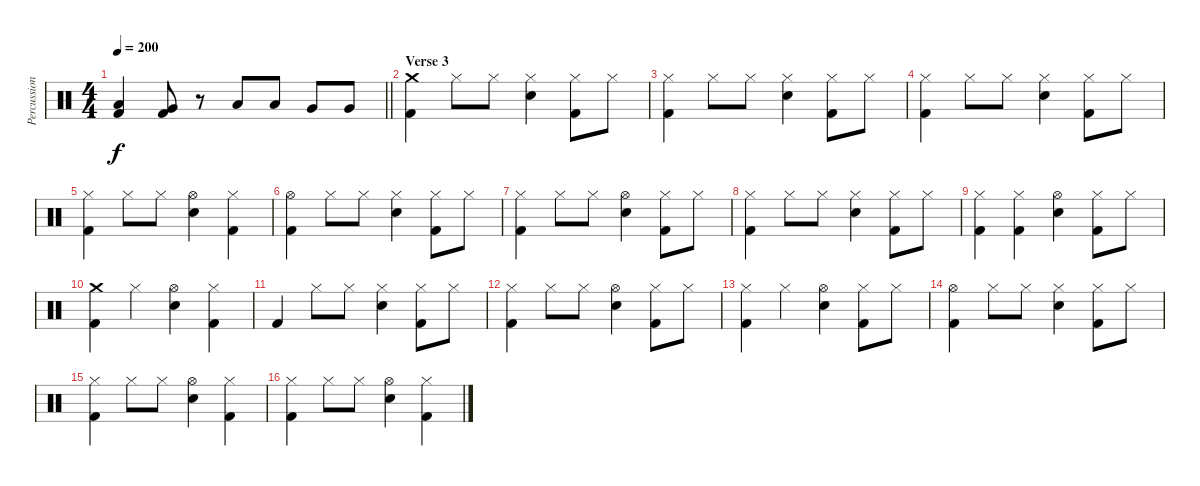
\track ("Percussion" "Percussion") {instrument percussion}
\staff {score}
\articulation defaults
\ts (4 4)
\tempo 200
\clef neutral
\barLineRight lightlight
\ks c
("Low Tom (hit)" "Kick (hit) 2").4{dy f} ("Very Low Tom (hit)" "Kick (hit) 2").8 r.8 "Low Tom (hit)".8 "Low Tom (hit)".8 "Very Low Tom (hit)".8 "Very Low Tom (hit)".8 |
\section ("" "Verse 3")
("Crash medium (hit)" "Kick (hit) 2").4 "Hi-Hat (closed)".8 "Hi-Hat (closed)".8 ("Hi-Hat (closed)" "Snare (hit) 2").4 ("Hi-Hat (closed)" "Kick (hit) 2").8 "Hi-Hat (closed)".8 |
("Hi-Hat (closed)" "Kick (hit) 2").4 "Hi-Hat (closed)".8 "Hi-Hat (closed)".8 ("Hi-Hat (closed)" "Snare (hit) 2").4 ("Hi-Hat (closed)" "Kick (hit) 2").8 "Hi-Hat (closed)".8 |
("Hi-Hat (closed)" "Kick (hit) 2").4 "Hi-Hat (closed)".8 "Hi-Hat (closed)".8 ("Hi-Hat (closed)" "Snare (hit) 2").4 ("Hi-Hat (closed)" "Kick (hit) 2").8 "Hi-Hat (closed)".8 |
("Hi-Hat (closed)" "Kick (hit) 2").4 "Hi-Hat (closed)".8 "Hi-Hat (closed)".8 ("Hi-Hat (open)" "Snare (hit) 2").4 ("Hi-Hat (closed)" "Kick (hit) 2").4 |
("Hi-Hat (open)" "Kick (hit) 2").4 "Hi-Hat (closed)".8 "Hi-Hat (closed)".8 ("Hi-Hat (closed)" "Snare (hit) 2").4 ("Hi-Hat (closed)" "Kick (hit) 2").8 "Hi-Hat (closed)".8 |
("Hi-Hat (closed)" "Kick (hit) 2").4 "Hi-Hat (closed)".8 "Hi-Hat (closed)".8 ("Hi-Hat (open)" "Snare (hit) 2").4 ("Hi-Hat (closed)" "Kick (hit) 2").8 "Hi-Hat (closed)".8 |
("Hi-Hat (closed)" "Kick (hit) 2").4 "Hi-Hat (closed)".8 "Hi-Hat (closed)".8 ("Hi-Hat (closed)" "Snare (hit) 2").4 ("Hi-Hat (closed)" "Kick (hit) 2").8 "Hi-Hat (closed)".8 |
("Hi-Hat (closed)" "Kick (hit) 2").4 ("Hi-Hat (closed)" "Kick (hit) 2").4 ("Hi-Hat (open)" "Snare (hit) 2").4 ("Hi-Hat (closed)" "Kick (hit) 2").8 "Hi-Hat (closed)".8 |
("Crash medium (hit)" "Kick (hit) 2").4 "Hi-Hat (closed)".4 ("Hi-Hat (open)" "Snare (hit) 2").4 ("Hi-Hat (closed)" "Kick (hit) 2").4 |
"Kick (hit) 2".4 "Hi-Hat (closed)".8 "Hi-Hat (closed)".8 ("Hi-Hat (closed)" "Snare (hit) 2").4 ("Hi-Hat (closed)" "Kick (hit) 2").8 "Hi-Hat (closed)".8 |
("Hi-Hat (closed)" "Kick (hit) 2").4 "Hi-Hat (closed)".8 "Hi-Hat (closed)".8 ("Hi-Hat (open)" "Snare (hit) 2").4 ("Hi-Hat (closed)" "Kick (hit) 2").8 "Hi-Hat (closed)".8 |
("Hi-Hat (closed)" "Kick (hit) 2").4 "Hi-Hat (closed)".4 ("Hi-Hat (open)" "Snare (hit) 2").4 ("Hi-Hat (closed)" "Kick (hit) 2").8 "Hi-Hat (closed)".8 |
("Hi-Hat (open)" "Kick (hit) 2").4 "Hi-Hat (closed)".8 "Hi-Hat (closed)".8 ("Hi-Hat (closed)" "Snare (hit) 2").4 ("Hi-Hat (closed)" "Kick (hit) 2").8 "Hi-Hat (closed)".8 |
("Hi-Hat (closed)" "Kick (hit) 2").4 "Hi-Hat (closed)".8 "Hi-Hat (closed)".8 ("Hi-Hat (open)" "Snare (hit) 2").4 ("Hi-Hat (closed)" "Kick (hit) 2").4 |
("Hi-Hat (closed)" "Kick (hit) 2").4 "Hi-Hat (closed)".8 "Hi-Hat (closed)".8 ("Hi-Hat (open)" "Snare (hit) 2").4 ("Hi-Hat (closed)" "Kick (hit) 2").4
